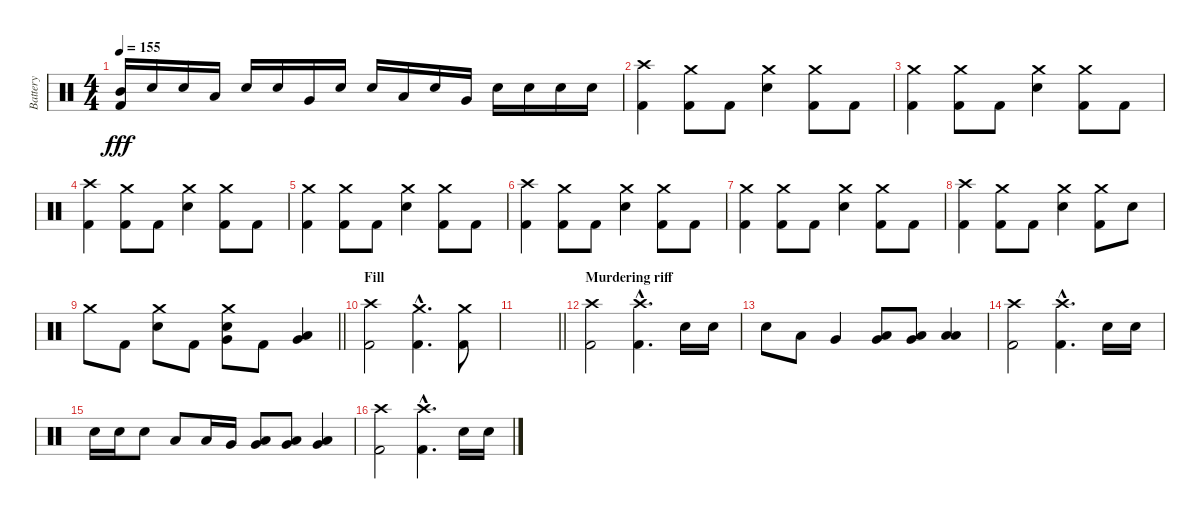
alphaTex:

\track ("Battery" "Battery") {instrument percussion}
\staff {score}
\articulation defaults
\ts (4 4)
\tempo 155
\clef neutral
\ks c
("Mid Tom (hit)" "Kick (hit) 2").16{dy fff} "Electric Snare (hit)".16 "Electric Snare (hit)".16 "Low Tom (hit)".16 "Electric Snare (hit)".16 "Electric Snare (hit)".16 "Very Low Tom (hit)".16 "Electric Snare (hit)".16 "Electric Snare (hit)".16 "Low Floor Tom (hit)".16 "Electric Snare (hit)".16 "Very Low Tom (hit)".16 "Electric Snare (hit)".16 "Electric Snare (hit)".16 "Electric Snare (hit)".16 "Electric Snare (hit)".16 |
("Crash high (hit)" "Kick (hit) 2").4 ("Crash medium (hit)" "Kick (hit) 2").8 "Kick (hit) 2".8 ("Crash medium (hit)" "Electric Snare (hit)").4 ("Crash medium (hit)" "Kick (hit) 2").8 "Kick (hit) 2".8 |
("Crash medium (hit)" "Kick (hit) 2").4 ("Crash medium (hit)" "Kick (hit) 2").8 "Kick (hit) 2".8 ("Crash medium (hit)" "Electric Snare (hit)").4 ("Crash medium (hit)" "Kick (hit) 2").8 "Kick (hit) 2".8 |
("Crash high (hit)" "Kick (hit) 2").4 ("Crash medium (hit)" "Kick (hit) 2").8 "Kick (hit) 2".8 ("Crash medium (hit)" "Electric Snare (hit)").4 ("Crash medium (hit)" "Kick (hit) 2").8 "Kick (hit) 2".8 |
("Crash medium (hit)" "Kick (hit) 2").4 ("Crash medium (hit)" "Kick (hit) 2").8 "Kick (hit) 2".8 ("Crash medium (hit)" "Electric Snare (hit)").4 ("Crash medium (hit)" "Kick (hit) 2").8 "Kick (hit) 2".8 |
("Crash high (hit)" "Kick (hit) 2").4 ("Crash medium (hit)" "Kick (hit) 2").8 "Kick (hit) 2".8 ("Crash medium (hit)" "Electric Snare (hit)").4 ("Crash medium (hit)" "Kick (hit) 2").8 "Kick (hit) 2".8 |
("Crash medium (hit)" "Kick (hit) 2").4 ("Crash medium (hit)" "Kick (hit) 2").8 "Kick (hit) 2".8 ("Crash medium (hit)" "Electric Snare (hit)").4 ("Crash medium (hit)" "Kick (hit) 2").8 "Kick (hit) 2".8 |
("Crash high (hit)" "Kick (hit) 2").4 ("Crash medium (hit)" "Kick (hit) 2").8 "Kick (hit) 2".8 ("Crash medium (hit)" "Electric Snare (hit)").4 ("Crash medium (hit)" "Kick (hit) 2").8 "Electric Snare (hit)".8 |
\barLineRight lightlight "Crash medium (hit)".8 "Kick (hit) 2".8
("Crash medium (hit)" "Electric Snare (hit)").8 "Kick (hit) 2".8 ("Crash medium (hit)" "Very Low Tom (hit)" "Electric Snare (hit)").8 "Kick (hit) 2".8 ("Low Tom (hit)" "Very Low Tom (hit)").4 |
\section ("" "Fill")
("Crash high (hit)" "Kick (hit) 2").2 ("Crash medium (hit)"{hac} "Kick (hit) 2"{hac}).4{d} ("Crash medium (hit)" "Kick (hit) 2").8 |
\barLineRight lightlight
|
\section ("" "Murdering riff")
("Crash high (hit)" "Kick (hit) 2").2 ("Crash high (hit)"{hac} "Kick (hit) 2"{hac}).4{d} "Electric Snare (hit)".16 "Electric Snare (hit)".16 |
"Electric Snare (hit)".8 "Low Tom (hit)".8 "Very Low Tom (hit)".4 ("Very Low Tom (hit)" "Low Floor Tom (hit)").8 ("Low Tom (hit)" "Very Low Tom (hit)").8 ("Low Floor Tom (hit)" "Low Floor Tom (hit)").4 |
("Crash high (hit)" "Kick (hit) 2").2 ("Crash high (hit)"{hac} "Kick (hit) 2"{hac}).4{d} "Electric Snare (hit)".16 "Electric Snare (hit)".16 |
"Electric Snare (hit)".16 "Electric Snare (hit)".16 "Electric Snare (hit)".8 "Low Tom (hit)".8 "Low Tom (hit)".16 "Very Low Tom (hit)".16 ("Very Low Tom (hit)" "Low Floor Tom (hit)").8 ("Very Low Tom (hit)" "Low Floor Tom (hit)").8 ("Very Low Tom (hit)" "Low Floor Tom (hit)").4 |
("Crash high (hit)" "Kick (hit) 2").2 ("Crash high (hit)"{hac} "Kick (hit) 2"{hac}).4{d} "Electric Snare (hit)".16 "Electric Snare (hit)".16
